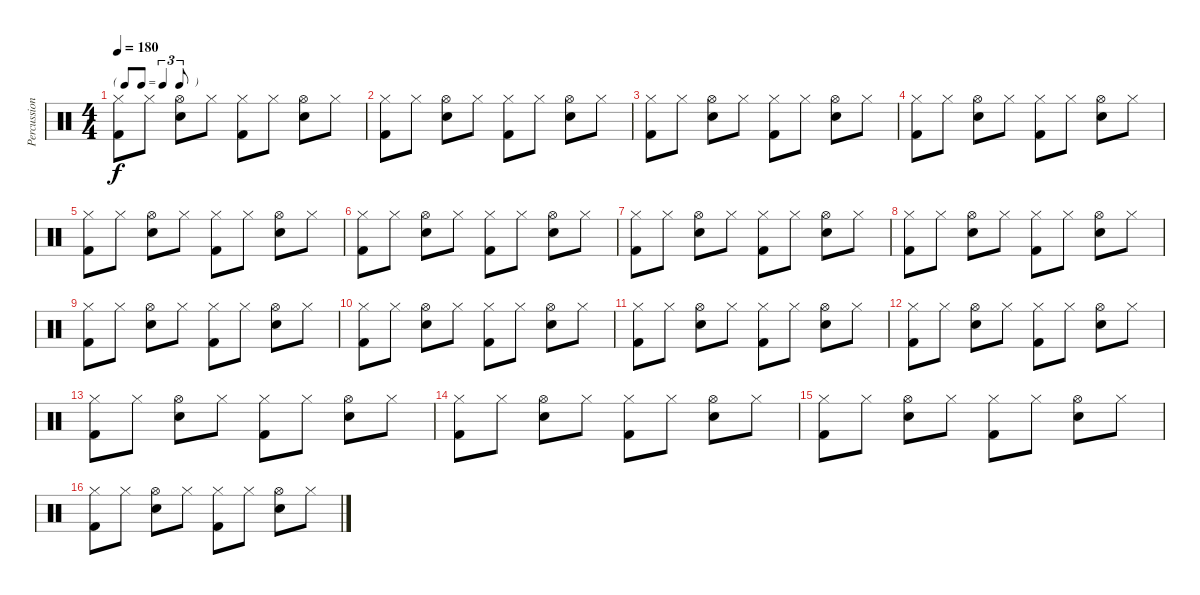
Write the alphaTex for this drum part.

\track ("Percussions" "Percussion") {instrument percussion}
\staff {score}
\articulation defaults
\ts (4 4)
\tf triplet8th
\tempo 180
\clef neutral
\ks c
("Hi-Hat (closed)" "Kick (hit) 2").8{dy f} "Hi-Hat (closed)".8 ("Hi-Hat (open)" "Snare (hit) 2").8 "Hi-Hat (closed)".8 ("Hi-Hat (closed)" "Kick (hit) 2").8 "Hi-Hat (closed)".8 ("Hi-Hat (open)" "Snare (hit) 2").8 "Hi-Hat (closed)".8 |
("Hi-Hat (closed)" "Kick (hit) 2").8 "Hi-Hat (closed)".8 ("Hi-Hat (open)" "Snare (hit) 2").8 "Hi-Hat (closed)".8 ("Hi-Hat (closed)" "Kick (hit) 2").8 "Hi-Hat (closed)".8 ("Hi-Hat (open)" "Snare (hit) 2").8 "Hi-Hat (closed)".8 |
("Hi-Hat (closed)" "Kick (hit) 2").8 "Hi-Hat (closed)".8 ("Hi-Hat (open)" "Snare (hit) 2").8 "Hi-Hat (closed)".8 ("Hi-Hat (closed)" "Kick (hit) 2").8 "Hi-Hat (closed)".8 ("Hi-Hat (open)" "Snare (hit) 2").8 "Hi-Hat (closed)".8 |
("Hi-Hat (closed)" "Kick (hit) 2").8 "Hi-Hat (closed)".8 ("Hi-Hat (open)" "Snare (hit) 2").8 "Hi-Hat (closed)".8 ("Hi-Hat (closed)" "Kick (hit) 2").8 "Hi-Hat (closed)".8 ("Hi-Hat (open)" "Snare (hit) 2").8 "Hi-Hat (closed)".8 |
("Hi-Hat (closed)" "Kick (hit) 2").8 "Hi-Hat (closed)".8 ("Hi-Hat (open)" "Snare (hit) 2").8 "Hi-Hat (closed)".8 ("Hi-Hat (closed)" "Kick (hit) 2").8 "Hi-Hat (closed)".8 ("Hi-Hat (open)" "Snare (hit) 2").8 "Hi-Hat (closed)".8 |
("Hi-Hat (closed)" "Kick (hit) 2").8 "Hi-Hat (closed)".8 ("Hi-Hat (open)" "Snare (hit) 2").8 "Hi-Hat (closed)".8 ("Hi-Hat (closed)" "Kick (hit) 2").8 "Hi-Hat (closed)".8 ("Hi-Hat (open)" "Snare (hit) 2").8 "Hi-Hat (closed)".8 |
("Hi-Hat (closed)" "Kick (hit) 2").8 "Hi-Hat (closed)".8 ("Hi-Hat (open)" "Snare (hit) 2").8 "Hi-Hat (closed)".8 ("Hi-Hat (closed)" "Kick (hit) 2").8 "Hi-Hat (closed)".8 ("Hi-Hat (open)" "Snare (hit) 2").8 "Hi-Hat (closed)".8 |
("Hi-Hat (closed)" "Kick (hit) 2").8 "Hi-Hat (closed)".8 ("Hi-Hat (open)" "Snare (hit) 2").8 "Hi-Hat (closed)".8 ("Hi-Hat (closed)" "Kick (hit) 2").8 "Hi-Hat (closed)".8 ("Hi-Hat (open)" "Snare (hit) 2").8 "Hi-Hat (closed)".8 |
("Hi-Hat (closed)" "Kick (hit) 2").8 "Hi-Hat (closed)".8 ("Hi-Hat (open)" "Snare (hit) 2").8 "Hi-Hat (closed)".8 ("Hi-Hat (closed)" "Kick (hit) 2").8 "Hi-Hat (closed)".8 ("Hi-Hat (open)" "Snare (hit) 2").8 "Hi-Hat (closed)".8 |
("Hi-Hat (closed)" "Kick (hit) 2").8 "Hi-Hat (closed)".8 ("Hi-Hat (open)" "Snare (hit) 2").8 "Hi-Hat (closed)".8 ("Hi-Hat (closed)" "Kick (hit) 2").8 "Hi-Hat (closed)".8 ("Hi-Hat (open)" "Snare (hit) 2").8 "Hi-Hat (closed)".8 |
("Hi-Hat (closed)" "Kick (hit) 2").8 "Hi-Hat (closed)".8 ("Hi-Hat (open)" "Snare (hit) 2").8 "Hi-Hat (closed)".8 ("Hi-Hat (closed)" "Kick (hit) 2").8 "Hi-Hat (closed)".8 ("Hi-Hat (open)" "Snare (hit) 2").8 "Hi-Hat (closed)".8 |
("Hi-Hat (closed)" "Kick (hit) 2").8 "Hi-Hat (closed)".8 ("Hi-Hat (open)" "Snare (hit) 2").8 "Hi-Hat (closed)".8 ("Hi-Hat (closed)" "Kick (hit) 2").8 "Hi-Hat (closed)".8 ("Hi-Hat (open)" "Snare (hit) 2").8 "Hi-Hat (closed)".8 |
("Hi-Hat (closed)" "Kick (hit) 2").8 "Hi-Hat (closed)".8 ("Hi-Hat (open)" "Snare (hit) 2").8 "Hi-Hat (closed)".8 ("Hi-Hat (closed)" "Kick (hit) 2").8 "Hi-Hat (closed)".8 ("Hi-Hat (open)" "Snare (hit) 2").8 "Hi-Hat (closed)".8 |
("Hi-Hat (closed)" "Kick (hit) 2").8 "Hi-Hat (closed)".8 ("Hi-Hat (open)" "Snare (hit) 2").8 "Hi-Hat (closed)".8 ("Hi-Hat (closed)" "Kick (hit) 2").8 "Hi-Hat (closed)".8 ("Hi-Hat (open)" "Snare (hit) 2").8 "Hi-Hat (closed)".8 |
("Hi-Hat (closed)" "Kick (hit) 2").8 "Hi-Hat (closed)".8 ("Hi-Hat (open)" "Snare (hit) 2").8 "Hi-Hat (closed)".8 ("Hi-Hat (closed)" "Kick (hit) 2").8 "Hi-Hat (closed)".8 ("Hi-Hat (open)" "Snare (hit) 2").8 "Hi-Hat (closed)".8 |
("Hi-Hat (closed)" "Kick (hit) 2").8 "Hi-Hat (closed)".8 ("Hi-Hat (open)" "Snare (hit) 2").8 "Hi-Hat (closed)".8 ("Hi-Hat (closed)" "Kick (hit) 2").8 "Hi-Hat (closed)".8 ("Hi-Hat (open)" "Snare (hit) 2").8 "Hi-Hat (closed)".8
